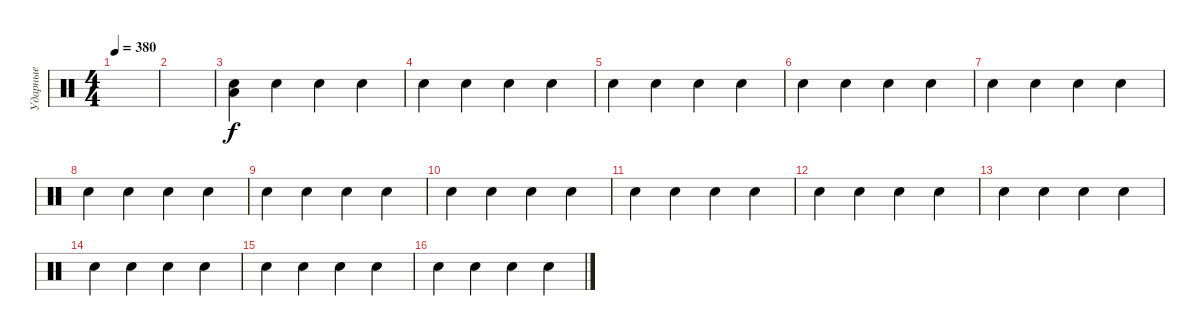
\track ("Ударные" "Ударные") {instrument percussion}
\staff {score}
\articulation defaults
\ts (4 4)
\tempo 380
\clef neutral
\ks c
|
|
("Electric Snare (hit)" "Low Tom (hit)").4 "Electric Snare (hit)".4 "Electric Snare (hit)".4 "Electric Snare (hit)".4 |
"Electric Snare (hit)".4 "Electric Snare (hit)".4 "Electric Snare (hit)".4 "Electric Snare (hit)".4 |
"Electric Snare (hit)".4 "Electric Snare (hit)".4 "Electric Snare (hit)".4 "Electric Snare (hit)".4 |
"Electric Snare (hit)".4 "Electric Snare (hit)".4 "Electric Snare (hit)".4 "Electric Snare (hit)".4 |
"Electric Snare (hit)".4 "Electric Snare (hit)".4 "Electric Snare (hit)".4 "Electric Snare (hit)".4 |
"Electric Snare (hit)".4 "Electric Snare (hit)".4 "Electric Snare (hit)".4 "Electric Snare (hit)".4 |
"Electric Snare (hit)".4 "Electric Snare (hit)".4 "Electric Snare (hit)".4 "Electric Snare (hit)".4 |
"Electric Snare (hit)".4 "Electric Snare (hit)".4 "Electric Snare (hit)".4 "Electric Snare (hit)".4 |
"Electric Snare (hit)".4 "Electric Snare (hit)".4 "Electric Snare (hit)".4 "Electric Snare (hit)".4 |
"Electric Snare (hit)".4 "Electric Snare (hit)".4 "Electric Snare (hit)".4 "Electric Snare (hit)".4 |
"Electric Snare (hit)".4 "Electric Snare (hit)".4 "Electric Snare (hit)".4 "Electric Snare (hit)".4 |
"Electric Snare (hit)".4 "Electric Snare (hit)".4 "Electric Snare (hit)".4 "Electric Snare (hit)".4 |
"Electric Snare (hit)".4 "Electric Snare (hit)".4 "Electric Snare (hit)".4 "Electric Snare (hit)".4 |
"Electric Snare (hit)".4 "Electric Snare (hit)".4 "Electric Snare (hit)".4 "Electric Snare (hit)".4
